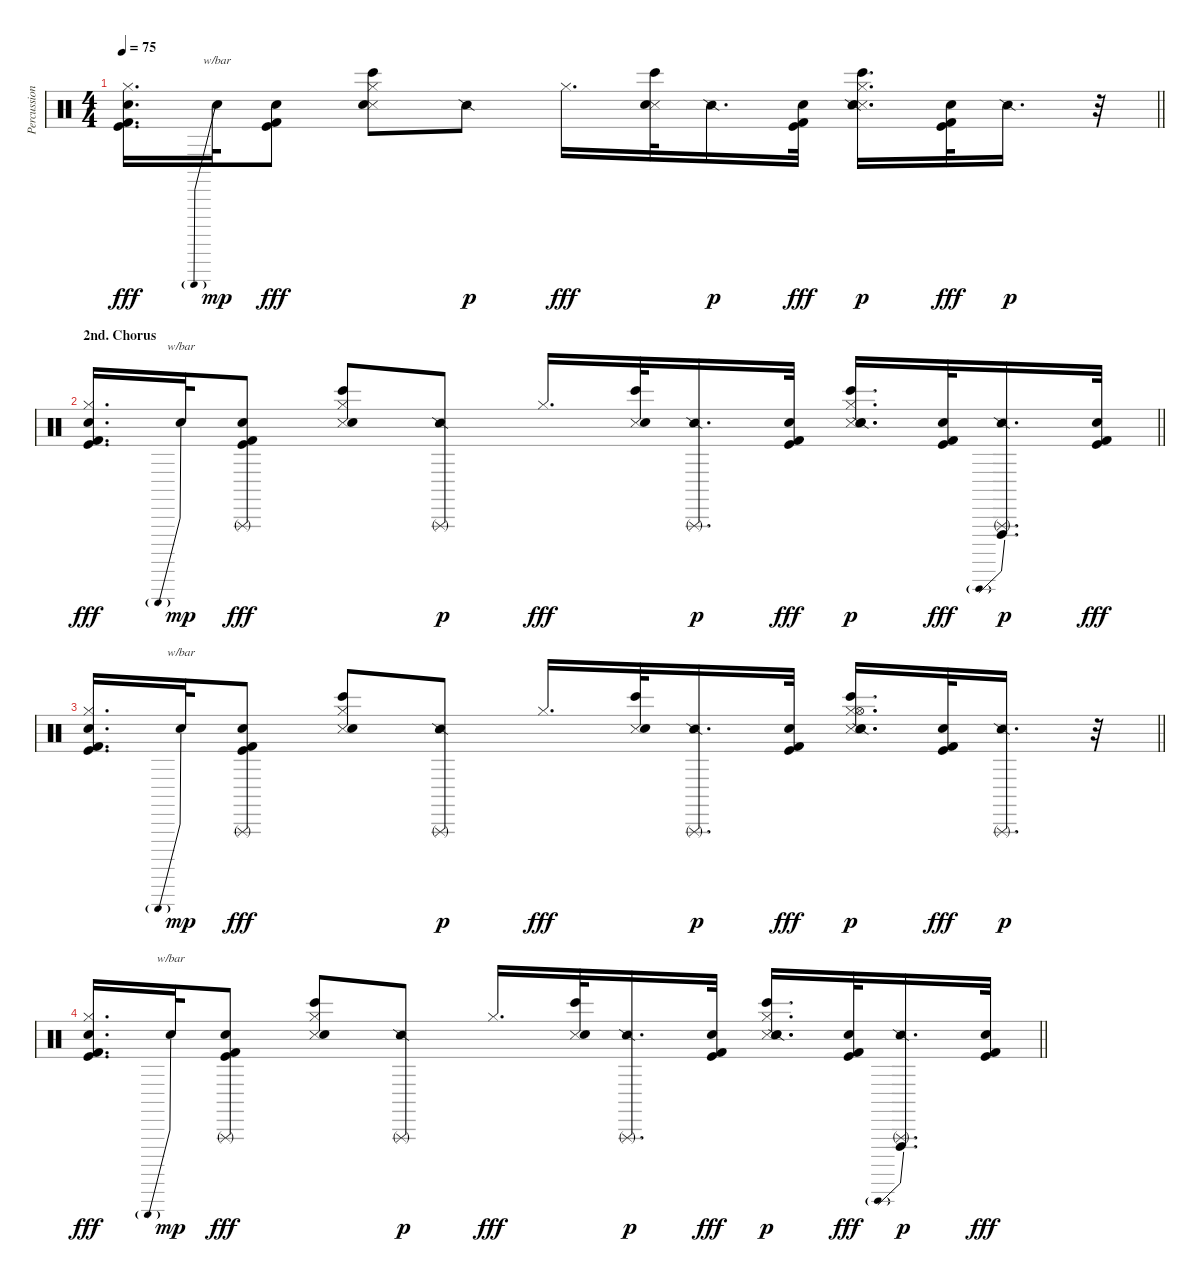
\track ("Percussion" "Percussion") {instrument percussion}
\staff {score}
\articulation defaults
\ts (4 4)
\tempo 75
\clef neutral
\barLineRight lightlight
\ks c
("Hi-Hat (closed)" "Snare (hit) 2" "Kick (hit)" "Kick (hit) 2").16{d dy fff} "Hand Clap (hit)".32{tbe (predive default 0 24 60 24) dy mp} ("Snare (hit) 2" "Kick (hit)" "Kick (hit) 2").8{dy fff} ("Hi-Hat (closed)" "Snare (side stick) 3" "Snare (hit) 2" "Bongo High (hit)").8 "Snare (side stick) 2".8{dy p} "Hi-Hat (closed)".16{d dy fff} ("Snare (side stick) 3" "Snare (hit) 2" "Bongo High (hit)").32 "Snare (side stick) 2".16{d dy p} ("Snare (hit) 2" "Kick (hit)" "Kick (hit) 2").32{dy fff} ("Hi-Hat (closed)" "Snare (side stick) 3" "Snare (hit) 2" "Bongo High (hit)" "Snare (side stick) 2").16{d dy p} ("Snare (hit) 2" "Kick (hit)" "Kick (hit) 2").32{dy fff} "Snare (side stick) 2".16{d dy p} r.32 |
\section ("" "2nd. Chorus")
\barLineRight lightlight
("Hi-Hat (closed)" "Snare (hit) 2" "Kick (hit)" "Kick (hit) 2").16{d dy fff} "Hand Clap (hit)".32{tbe (predive default 0 24 60 24) dy mp} ("Triangle (rnute)" "Snare (hit) 2" "Kick (hit)" "Kick (hit) 2").8{dy fff} ("Hi-Hat (closed)" "Snare (side stick) 3" "Snare (hit) 2" "Bongo High (hit)").8 ("Triangle (rnute)" "Snare (side stick) 2").8{dy p} "Hi-Hat (closed)".16{d dy fff} ("Snare (side stick) 3" "Snare (hit) 2" "Bongo High (hit)").32 ("Triangle (rnute)" "Snare (side stick) 2").16{d dy p} ("Snare (hit) 2" "Kick (hit)" "Kick (hit) 2").32{dy fff} ("Hi-Hat (closed)" "Snare (side stick) 3" "Snare (hit) 2" "Bongo High (hit)" "Snare (side stick) 2").16{d dy p} ("Snare (hit) 2" "Kick (hit)" "Kick (hit) 2").32{dy fff} ("Triangle (rnute)" "Snare (side stick) 2" "Vibraslap (hit)"{be (prebend 0 12 60 12)}).16{d dy p} ("Snare (hit) 2" "Kick (hit)" "Kick (hit) 2").32{dy fff} |
\barLineRight lightlight
("Hi-Hat (closed)" "Snare (hit) 2" "Kick (hit)" "Kick (hit) 2").16{d} "Hand Clap (hit)".32{tbe (predive default 0 24 60 24) dy mp} ("Triangle (rnute)" "Snare (hit) 2" "Kick (hit)" "Kick (hit) 2").8{dy fff} ("Hi-Hat (closed)" "Snare (side stick) 3" "Snare (hit) 2" "Bongo High (hit)").8 ("Triangle (rnute)" "Snare (side stick) 2").8{dy p} "Hi-Hat (closed)".16{d dy fff} ("Snare (side stick) 3" "Snare (hit) 2" "Bongo High (hit)").32 ("Triangle (rnute)" "Snare (side stick) 2").16{d dy p} ("Snare (hit) 2" "Kick (hit)" "Kick (hit) 2").32{dy fff} ("Hi-Hat (closed)" "Snare (side stick) 3" "Snare (hit) 2" "Bongo High (hit)" "Snare (side stick) 2" "Hi-Hat (open)").16{d dy p} ("Snare (hit) 2" "Kick (hit)" "Kick (hit) 2").32{dy fff} ("Triangle (rnute)" "Snare (side stick) 2").16{d dy p} r.32 |
\barLineRight lightlight
("Hi-Hat (closed)" "Snare (hit) 2" "Kick (hit)" "Kick (hit) 2").16{d dy fff} "Hand Clap (hit)".32{tbe (predive default 0 24 60 24) dy mp} ("Triangle (rnute)" "Snare (hit) 2" "Kick (hit)" "Kick (hit) 2").8{dy fff} ("Hi-Hat (closed)" "Snare (side stick) 3" "Snare (hit) 2" "Bongo High (hit)").8 ("Triangle (rnute)" "Snare (side stick) 2").8{dy p} "Hi-Hat (closed)".16{d dy fff} ("Snare (side stick) 3" "Snare (hit) 2" "Bongo High (hit)").32 ("Triangle (rnute)" "Snare (side stick) 2").16{d dy p} ("Snare (hit) 2" "Kick (hit)" "Kick (hit) 2").32{dy fff} ("Hi-Hat (closed)" "Snare (side stick) 3" "Snare (hit) 2" "Bongo High (hit)" "Snare (side stick) 2").16{d dy p} ("Snare (hit) 2" "Kick (hit)" "Kick (hit) 2").32{dy fff} ("Triangle (rnute)" "Snare (side stick) 2" "Vibraslap (hit)"{be (prebend 0 12 60 12)}).16{d dy p} ("Snare (hit) 2" "Kick (hit)" "Kick (hit) 2").32{dy fff}
